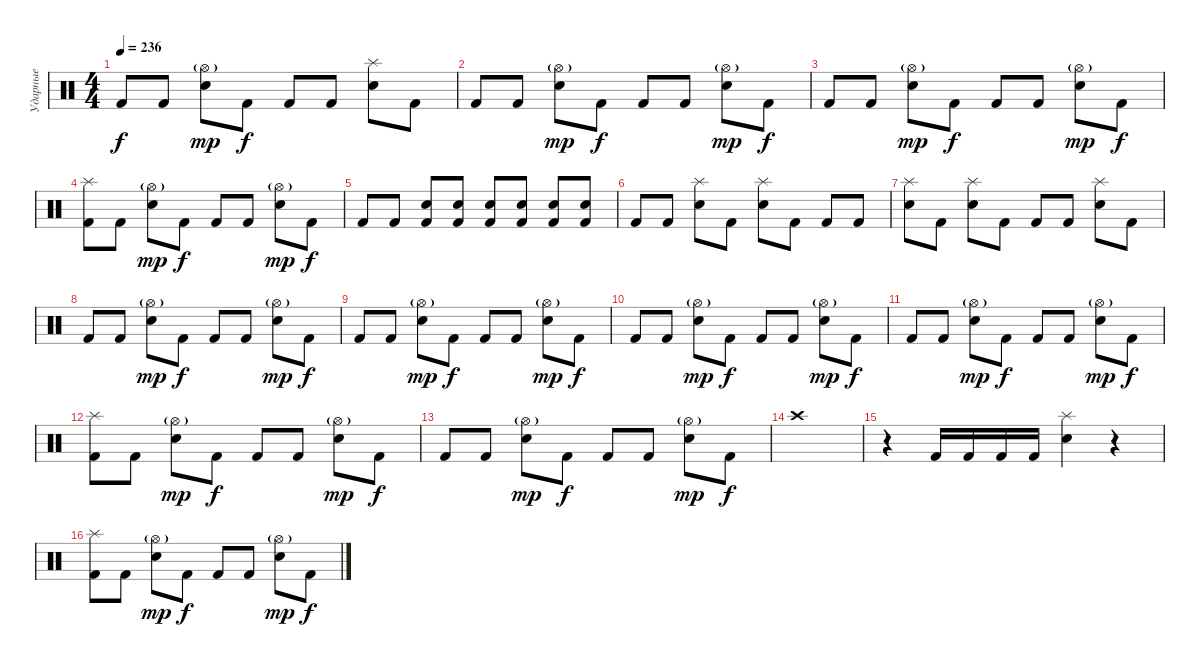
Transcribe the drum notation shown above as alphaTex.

\track ("Ударные" "Ударные") {instrument percussion}
\staff {score}
\articulation defaults
\ts (4 4)
\tempo 236
\clef neutral
\ks c "Kick (hit) 2".8{dy f} "Kick (hit) 2".8
("Hi-Hat (open)"{g} "Electric Snare (hit)").8{dy mp} "Kick (hit) 2".8{dy f} "Kick (hit) 2".8 "Kick (hit) 2".8 ("Splash (hit)" "Electric Snare (hit)").8 "Kick (hit) 2".8 |
"Kick (hit) 2".8 "Kick (hit) 2".8 ("Hi-Hat (open)"{g} "Electric Snare (hit)").8{dy mp} "Kick (hit) 2".8{dy f} "Kick (hit) 2".8 "Kick (hit) 2".8 ("Hi-Hat (open)"{g} "Electric Snare (hit)").8{dy mp} "Kick (hit) 2".8{dy f} |
"Kick (hit) 2".8 "Kick (hit) 2".8 ("Hi-Hat (open)"{g} "Electric Snare (hit)").8{dy mp} "Kick (hit) 2".8{dy f} "Kick (hit) 2".8 "Kick (hit) 2".8 ("Hi-Hat (open)"{g} "Electric Snare (hit)").8{dy mp} "Kick (hit) 2".8{dy f} |
("Splash (hit)" "Kick (hit) 2").8 "Kick (hit) 2".8 ("Hi-Hat (open)"{g} "Electric Snare (hit)").8{dy mp} "Kick (hit) 2".8{dy f} "Kick (hit) 2".8 "Kick (hit) 2".8 ("Hi-Hat (open)"{g} "Electric Snare (hit)").8{dy mp} "Kick (hit) 2".8{dy f} |
"Kick (hit) 2".8 "Kick (hit) 2".8 ("Electric Snare (hit)" "Kick (hit) 2").8 ("Electric Snare (hit)" "Kick (hit) 2").8 ("Electric Snare (hit)" "Kick (hit) 2").8 ("Electric Snare (hit)" "Kick (hit) 2").8 ("Electric Snare (hit)" "Kick (hit) 2").8 ("Electric Snare (hit)" "Kick (hit) 2").8 |
"Kick (hit) 2".8 "Kick (hit) 2".8 ("Splash (hit)" "Electric Snare (hit)").8 "Kick (hit) 2".8 ("Splash (hit)" "Electric Snare (hit)").8 "Kick (hit) 2".8 "Kick (hit) 2".8 "Kick (hit) 2".8 |
("Splash (hit)" "Electric Snare (hit)").8 "Kick (hit) 2".8 ("Splash (hit)" "Electric Snare (hit)").8 "Kick (hit) 2".8 "Kick (hit) 2".8 "Kick (hit) 2".8 ("Splash (hit)" "Electric Snare (hit)").8 "Kick (hit) 2".8 |
"Kick (hit) 2".8 "Kick (hit) 2".8 ("Hi-Hat (open)"{g} "Electric Snare (hit)").8{dy mp} "Kick (hit) 2".8{dy f} "Kick (hit) 2".8 "Kick (hit) 2".8 ("Hi-Hat (open)"{g} "Electric Snare (hit)").8{dy mp} "Kick (hit) 2".8{dy f} |
"Kick (hit) 2".8 "Kick (hit) 2".8 ("Hi-Hat (open)"{g} "Electric Snare (hit)").8{dy mp} "Kick (hit) 2".8{dy f} "Kick (hit) 2".8 "Kick (hit) 2".8 ("Hi-Hat (open)"{g} "Electric Snare (hit)").8{dy mp} "Kick (hit) 2".8{dy f} |
"Kick (hit) 2".8 "Kick (hit) 2".8 ("Hi-Hat (open)"{g} "Electric Snare (hit)").8{dy mp} "Kick (hit) 2".8{dy f} "Kick (hit) 2".8 "Kick (hit) 2".8 ("Hi-Hat (open)"{g} "Electric Snare (hit)").8{dy mp} "Kick (hit) 2".8{dy f} |
"Kick (hit) 2".8 "Kick (hit) 2".8 ("Hi-Hat (open)"{g} "Electric Snare (hit)").8{dy mp} "Kick (hit) 2".8{dy f} "Kick (hit) 2".8 "Kick (hit) 2".8 ("Hi-Hat (open)"{g} "Electric Snare (hit)").8{dy mp} "Kick (hit) 2".8{dy f} |
("Splash (hit)" "Kick (hit) 2").8 "Kick (hit) 2".8 ("Hi-Hat (open)"{g} "Electric Snare (hit)").8{dy mp} "Kick (hit) 2".8{dy f} "Kick (hit) 2".8 "Kick (hit) 2".8 ("Hi-Hat (open)"{g} "Electric Snare (hit)").8{dy mp} "Kick (hit) 2".8{dy f} |
"Kick (hit) 2".8 "Kick (hit) 2".8 ("Hi-Hat (open)"{g} "Electric Snare (hit)").8{dy mp} "Kick (hit) 2".8{dy f} "Kick (hit) 2".8 "Kick (hit) 2".8 ("Hi-Hat (open)"{g} "Electric Snare (hit)").8{dy mp} "Kick (hit) 2".8{dy f} |
"Crash high (hit)".1 |
r.4 "Kick (hit) 2".16 "Kick (hit) 2".16 "Kick (hit) 2".16 "Kick (hit) 2".16 ("Splash (hit)" "Electric Snare (hit)").4 r.4 |
("Splash (hit)" "Kick (hit) 2").8 "Kick (hit) 2".8 ("Hi-Hat (open)"{g} "Electric Snare (hit)").8{dy mp} "Kick (hit) 2".8{dy f} "Kick (hit) 2".8 "Kick (hit) 2".8 ("Hi-Hat (open)"{g} "Electric Snare (hit)").8{dy mp} "Kick (hit) 2".8{dy f}
